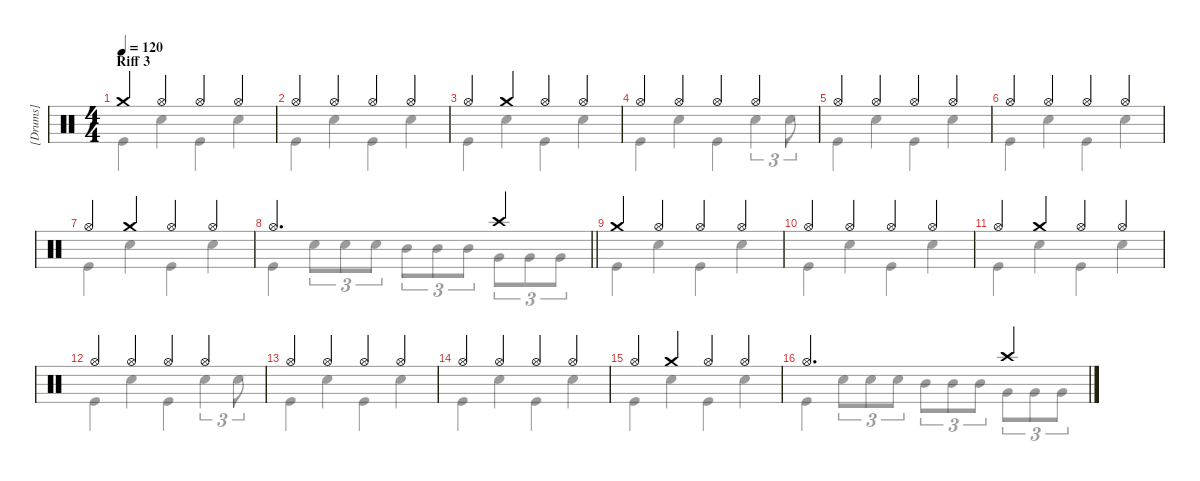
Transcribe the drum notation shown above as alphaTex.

\hideDynamics
\bracketExtendMode groupsimilarinstruments
\firstSystemTrackNameMode fullname
\otherSystemsTrackNameMode fullname
\otherSystemsTrackNameOrientation horizontal
\track ("[Drums]" "Drums") {instrument percussion}
\staff {score}
\articulation defaults
\voice
\ts (4 4)
\section ("" "Riff 3")
\tempo 120
\clef neutral
\scale
0.333333
\ks c "Crash medium (hit)".4{dy ff} "Hi-Hat (open)".4 "Hi-Hat (open)".4 "Hi-Hat (open)".4
|
\scale
0.333333 "Hi-Hat (open)".4 "Hi-Hat (open)".4 "Hi-Hat (open)".4 "Hi-Hat (open)".4 |
\scale
0.333333 "Hi-Hat (open)".4 "Crash medium (hit)".4 "Hi-Hat (open)".4 "Hi-Hat (open)".4 |
\scale
0.333333 "Hi-Hat (open)".4 "Hi-Hat (open)".4 "Hi-Hat (open)".4 "Hi-Hat (open)".4 |
\scale
0.333333 "Hi-Hat (open)".4 "Hi-Hat (open)".4 "Hi-Hat (open)".4 "Hi-Hat (open)".4 |
\scale
0.333333 "Hi-Hat (open)".4 "Hi-Hat (open)".4 "Hi-Hat (open)".4 "Hi-Hat (open)".4 |
\scale
0.333333 "Hi-Hat (open)".4 "Crash medium (hit)".4 "Hi-Hat (open)".4 "Hi-Hat (open)".4 |
\scale
0.333333
\barLineRight lightlight "Hi-Hat (open)".2{d} "Crash high (hit)".4
|
\scale
0.333333 "Crash medium (hit)".4 "Hi-Hat (open)".4 "Hi-Hat (open)".4 "Hi-Hat (open)".4 |
\scale
0.333333 "Hi-Hat (open)".4 "Hi-Hat (open)".4 "Hi-Hat (open)".4 "Hi-Hat (open)".4 |
\scale
0.333333 "Hi-Hat (open)".4 "Crash medium (hit)".4 "Hi-Hat (open)".4 "Hi-Hat (open)".4 |
\scale
0.333333 "Hi-Hat (open)".4 "Hi-Hat (open)".4 "Hi-Hat (open)".4 "Hi-Hat (open)".4 |
\scale
0.333333 "Hi-Hat (open)".4 "Hi-Hat (open)".4 "Hi-Hat (open)".4 "Hi-Hat (open)".4 |
\scale
0.333333 "Hi-Hat (open)".4 "Hi-Hat (open)".4 "Hi-Hat (open)".4 "Hi-Hat (open)".4 |
\scale
0.333333 "Hi-Hat (open)".4 "Crash medium (hit)".4 "Hi-Hat (open)".4 "Hi-Hat (open)".4 |
\scale
0.333333 "Hi-Hat (open)".2{d} "Crash high (hit)".4
\voice
\clef neutral
\ottava regular
\simile none
\scale
0.333333
\ks c "Kick (hit)".4{dy f} "Snare (hit) 2".4 "Kick (hit)".4 "Snare (hit) 2".4
|
\scale
0.333333 "Kick (hit)".4 "Snare (hit) 2".4 "Kick (hit)".4 "Snare (hit) 2".4 |
\scale
0.333333 "Kick (hit)".4 "Snare (hit) 2".4 "Kick (hit)".4 "Snare (hit) 2".4 |
\scale
0.333333 "Kick (hit)".4 "Snare (hit) 2".4 "Kick (hit)".4 "Snare (hit) 2".4{tu (3 2)} "Snare (hit) 2".8{tu (3 2)} |
\scale
0.333333 "Kick (hit)".4 "Snare (hit) 2".4 "Kick (hit)".4 "Snare (hit) 2".4 |
\scale
0.333333 "Kick (hit)".4 "Snare (hit) 2".4 "Kick (hit)".4 "Snare (hit) 2".4 |
\scale
0.333333 "Kick (hit)".4 "Snare (hit) 2".4 "Kick (hit)".4 "Snare (hit) 2".4 |
\scale
0.333333
\barLineRight lightlight "Kick (hit)".4 "Snare (hit) 2".8{tu (3 2)} "Snare (hit) 2".8{tu (3 2)} "Snare (hit) 2".8{tu (3 2)} "Mid Tom (hit)".8{tu (3 2)} "Mid Tom (hit)".8{tu (3 2)} "Mid Tom (hit)".8{tu (3 2)} "Very Low Tom (hit)".8{tu (3 2)} "Very Low Tom (hit)".8{tu (3 2)} "Very Low Tom (hit)".8{tu (3 2)}
|
\scale
0.333333 "Kick (hit)".4 "Snare (hit) 2".4 "Kick (hit)".4 "Snare (hit) 2".4 |
\scale
0.333333 "Kick (hit)".4 "Snare (hit) 2".4 "Kick (hit)".4 "Snare (hit) 2".4 |
\scale
0.333333 "Kick (hit)".4 "Snare (hit) 2".4 "Kick (hit)".4 "Snare (hit) 2".4 |
\scale
0.333333 "Kick (hit)".4 "Snare (hit) 2".4 "Kick (hit)".4 "Snare (hit) 2".4{tu (3 2)} "Snare (hit) 2".8{tu (3 2)} |
\scale
0.333333 "Kick (hit)".4 "Snare (hit) 2".4 "Kick (hit)".4 "Snare (hit) 2".4 |
\scale
0.333333 "Kick (hit)".4 "Snare (hit) 2".4 "Kick (hit)".4 "Snare (hit) 2".4 |
\scale
0.333333 "Kick (hit)".4 "Snare (hit) 2".4 "Kick (hit)".4 "Snare (hit) 2".4 |
\scale
0.333333 "Kick (hit)".4 "Snare (hit) 2".8{tu (3 2)} "Snare (hit) 2".8{tu (3 2)} "Snare (hit) 2".8{tu (3 2)} "Mid Tom (hit)".8{tu (3 2)} "Mid Tom (hit)".8{tu (3 2)} "Mid Tom (hit)".8{tu (3 2)} "Very Low Tom (hit)".8{tu (3 2)} "Very Low Tom (hit)".8{tu (3 2)} "Very Low Tom (hit)".8{tu (3 2)}
